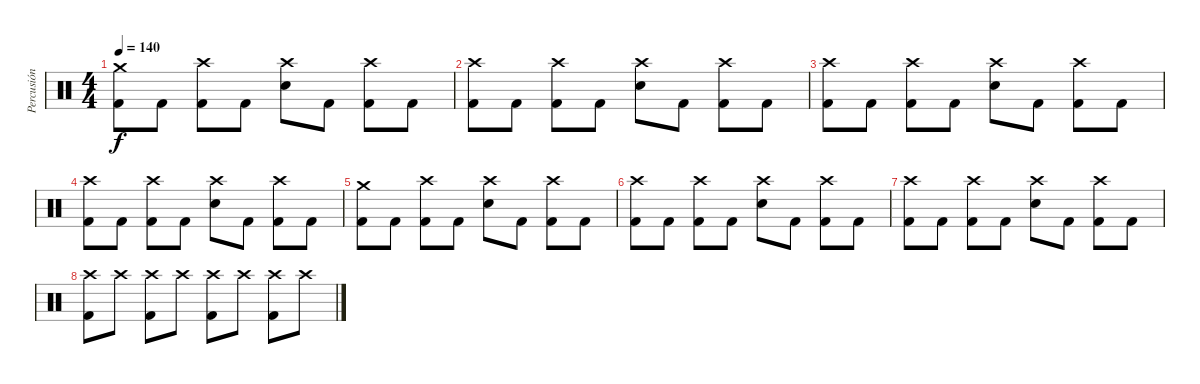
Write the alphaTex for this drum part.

\track ("Percusión" "Percusión") {instrument percussion}
\staff {score}
\articulation defaults
\ts (4 4)
\tempo 140
\clef neutral
\ks c
("Crash medium (hit)" "Kick (hit) 2").8{dy f} "Kick (hit) 2".8 ("Crash high (hit)" "Kick (hit) 2").8 "Kick (hit) 2".8 ("Crash high (hit)" "Electric Snare (hit)").8 "Kick (hit) 2".8 ("Crash high (hit)" "Kick (hit) 2").8 "Kick (hit) 2".8 |
("Crash high (hit)" "Kick (hit) 2").8 "Kick (hit) 2".8 ("Crash high (hit)" "Kick (hit) 2").8 "Kick (hit) 2".8 ("Crash high (hit)" "Electric Snare (hit)").8 "Kick (hit) 2".8 ("Crash high (hit)" "Kick (hit) 2").8 "Kick (hit) 2".8 |
("Crash high (hit)" "Kick (hit) 2").8 "Kick (hit) 2".8 ("Crash high (hit)" "Kick (hit) 2").8 "Kick (hit) 2".8 ("Crash high (hit)" "Electric Snare (hit)").8 "Kick (hit) 2".8 ("Crash high (hit)" "Kick (hit) 2").8 "Kick (hit) 2".8 |
("Crash high (hit)" "Kick (hit) 2").8 "Kick (hit) 2".8 ("Crash high (hit)" "Kick (hit) 2").8 "Kick (hit) 2".8 ("Crash high (hit)" "Electric Snare (hit)").8 "Kick (hit) 2".8 ("Crash high (hit)" "Kick (hit) 2").8 "Kick (hit) 2".8 |
("Crash medium (hit)" "Kick (hit) 2").8 "Kick (hit) 2".8 ("Crash high (hit)" "Kick (hit) 2").8 "Kick (hit) 2".8 ("Crash high (hit)" "Electric Snare (hit)").8 "Kick (hit) 2".8 ("Crash high (hit)" "Kick (hit) 2").8 "Kick (hit) 2".8 |
("Crash high (hit)" "Kick (hit) 2").8 "Kick (hit) 2".8 ("Crash high (hit)" "Kick (hit) 2").8 "Kick (hit) 2".8 ("Crash high (hit)" "Electric Snare (hit)").8 "Kick (hit) 2".8 ("Crash high (hit)" "Kick (hit) 2").8 "Kick (hit) 2".8 |
("Crash high (hit)" "Kick (hit) 2").8 "Kick (hit) 2".8 ("Crash high (hit)" "Kick (hit) 2").8 "Kick (hit) 2".8 ("Crash high (hit)" "Electric Snare (hit)").8 "Kick (hit) 2".8 ("Crash high (hit)" "Kick (hit) 2").8 "Kick (hit) 2".8 |
("Crash high (hit)" "Kick (hit) 2").8 "Crash high (hit)".8 ("Crash high (hit)" "Kick (hit) 2").8 "Crash high (hit)".8 ("Crash high (hit)" "Kick (hit) 2").8 "Crash high (hit)".8 ("Crash high (hit)" "Kick (hit) 2").8 "Crash high (hit)".8
